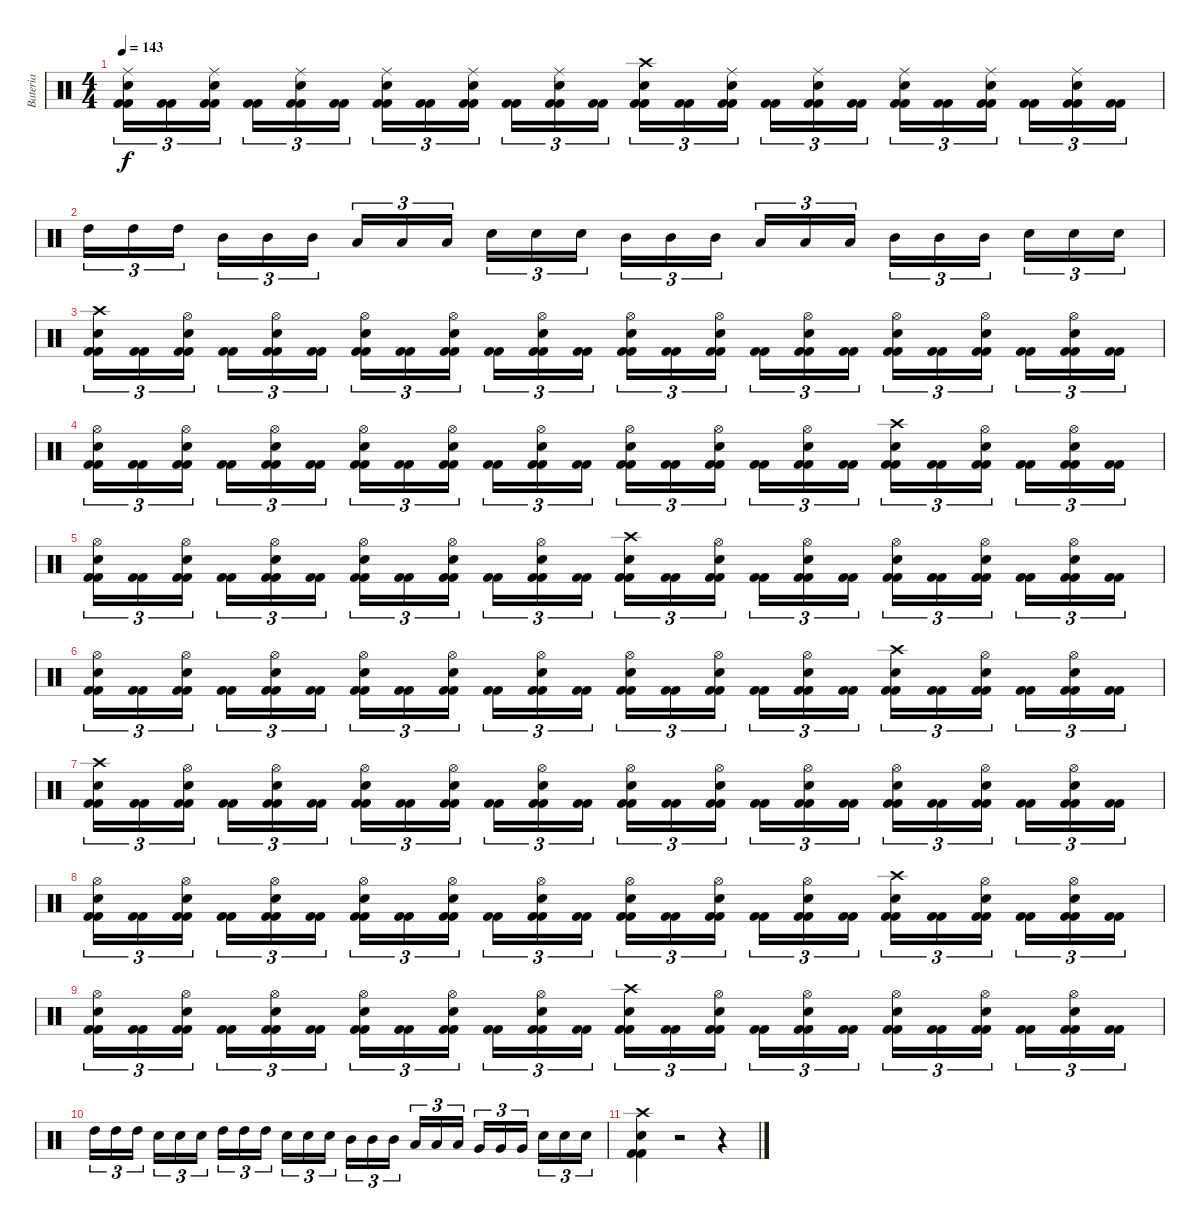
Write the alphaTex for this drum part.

\track ("Bateria" "Bateria") {instrument percussion}
\staff {score}
\articulation defaults
\ts (4 4)
\tempo 143
\clef neutral
\ks c
("Kick (hit) 2" "Kick (hit) 2" "Snare (hit) 2" "Ride (middle)").16{tu (3 2) dy f} ("Kick (hit) 2" "Kick (hit) 2").16{tu (3 2)} ("Kick (hit) 2" "Kick (hit) 2" "Snare (hit) 2" "Ride (middle)").16{tu (3 2)} ("Kick (hit) 2" "Kick (hit) 2").16{tu (3 2)} ("Kick (hit) 2" "Kick (hit) 2" "Snare (hit) 2" "Ride (middle)").16{tu (3 2)} ("Kick (hit) 2" "Kick (hit) 2").16{tu (3 2)} ("Kick (hit) 2" "Kick (hit) 2" "Snare (hit) 2" "Ride (middle)").16{tu (3 2)} ("Kick (hit) 2" "Kick (hit) 2").16{tu (3 2)} ("Kick (hit) 2" "Kick (hit) 2" "Snare (hit) 2" "Ride (middle)").16{tu (3 2)} ("Kick (hit) 2" "Kick (hit) 2").16{tu (3 2)} ("Kick (hit) 2" "Kick (hit) 2" "Snare (hit) 2" "Ride (middle)").16{tu (3 2)} ("Kick (hit) 2" "Kick (hit) 2").16{tu (3 2)} ("Kick (hit) 2" "Kick (hit) 2" "Snare (hit) 2" "Crash high (hit)").16{tu (3 2)} ("Kick (hit) 2" "Kick (hit) 2").16{tu (3 2)} ("Kick (hit) 2" "Kick (hit) 2" "Snare (hit) 2" "Ride (middle)").16{tu (3 2)} ("Kick (hit) 2" "Kick (hit) 2").16{tu (3 2)} ("Kick (hit) 2" "Kick (hit) 2" "Snare (hit) 2" "Ride (middle)").16{tu (3 2)} ("Kick (hit) 2" "Kick (hit) 2").16{tu (3 2)} ("Kick (hit) 2" "Kick (hit) 2" "Snare (hit) 2" "Ride (middle)").16{tu (3 2)} ("Kick (hit) 2" "Kick (hit) 2").16{tu (3 2)} ("Kick (hit) 2" "Kick (hit) 2" "Snare (hit) 2" "Ride (middle)").16{tu (3 2)} ("Kick (hit) 2" "Kick (hit) 2").16{tu (3 2)} ("Kick (hit) 2" "Kick (hit) 2" "Snare (hit) 2" "Ride (middle)").16{tu (3 2)} ("Kick (hit) 2" "Kick (hit) 2").16{tu (3 2)} |
"High Tom (hit)".16{tu (3 2)} "High Tom (hit)".16{tu (3 2)} "High Tom (hit)".16{tu (3 2)} "Mid Tom (hit)".16{tu (3 2)} "Mid Tom (hit)".16{tu (3 2)} "Mid Tom (hit)".16{tu (3 2)} "Low Tom (hit)".16{tu (3 2)} "Low Tom (hit)".16{tu (3 2)} "Low Tom (hit)".16{tu (3 2)} "Snare (hit) 2".16{tu (3 2)} "Snare (hit) 2".16{tu (3 2)} "Snare (hit) 2".16{tu (3 2)} "Mid Tom (hit)".16{tu (3 2)} "Mid Tom (hit)".16{tu (3 2)} "Mid Tom (hit)".16{tu (3 2)} "Low Tom (hit)".16{tu (3 2)} "Low Tom (hit)".16{tu (3 2)} "Low Tom (hit)".16{tu (3 2)} "Mid Tom (hit)".16{tu (3 2)} "Mid Tom (hit)".16{tu (3 2)} "Mid Tom (hit)".16{tu (3 2)} "Snare (hit) 2".16{tu (3 2)} "Snare (hit) 2".16{tu (3 2)} "Snare (hit) 2".16{tu (3 2)} |
("Kick (hit) 2" "Kick (hit) 2" "Snare (hit) 2" "Crash high (hit)").16{tu (3 2)} ("Kick (hit) 2" "Kick (hit) 2").16{tu (3 2)} ("Kick (hit) 2" "Kick (hit) 2" "Snare (hit) 2" "Hi-Hat (open)").16{tu (3 2)} ("Kick (hit) 2" "Kick (hit) 2").16{tu (3 2)} ("Kick (hit) 2" "Kick (hit) 2" "Snare (hit) 2" "Hi-Hat (open)").16{tu (3 2)} ("Kick (hit) 2" "Kick (hit) 2").16{tu (3 2)} ("Kick (hit) 2" "Kick (hit) 2" "Snare (hit) 2" "Hi-Hat (open)").16{tu (3 2)} ("Kick (hit) 2" "Kick (hit) 2").16{tu (3 2)} ("Kick (hit) 2" "Kick (hit) 2" "Snare (hit) 2" "Hi-Hat (open)").16{tu (3 2)} ("Kick (hit) 2" "Kick (hit) 2").16{tu (3 2)} ("Kick (hit) 2" "Kick (hit) 2" "Snare (hit) 2" "Hi-Hat (open)").16{tu (3 2)} ("Kick (hit) 2" "Kick (hit) 2").16{tu (3 2)} ("Kick (hit) 2" "Kick (hit) 2" "Snare (hit) 2" "Hi-Hat (open)").16{tu (3 2)} ("Kick (hit) 2" "Kick (hit) 2").16{tu (3 2)} ("Kick (hit) 2" "Kick (hit) 2" "Snare (hit) 2" "Hi-Hat (open)").16{tu (3 2)} ("Kick (hit) 2" "Kick (hit) 2").16{tu (3 2)} ("Kick (hit) 2" "Kick (hit) 2" "Snare (hit) 2" "Hi-Hat (open)").16{tu (3 2)} ("Kick (hit) 2" "Kick (hit) 2").16{tu (3 2)} ("Kick (hit) 2" "Kick (hit) 2" "Snare (hit) 2" "Hi-Hat (open)").16{tu (3 2)} ("Kick (hit) 2" "Kick (hit) 2").16{tu (3 2)} ("Kick (hit) 2" "Kick (hit) 2" "Snare (hit) 2" "Hi-Hat (open)").16{tu (3 2)} ("Kick (hit) 2" "Kick (hit) 2").16{tu (3 2)} ("Kick (hit) 2" "Kick (hit) 2" "Snare (hit) 2" "Hi-Hat (open)").16{tu (3 2)} ("Kick (hit) 2" "Kick (hit) 2").16{tu (3 2)} |
("Kick (hit) 2" "Kick (hit) 2" "Snare (hit) 2" "Hi-Hat (open)").16{tu (3 2)} ("Kick (hit) 2" "Kick (hit) 2").16{tu (3 2)} ("Kick (hit) 2" "Kick (hit) 2" "Snare (hit) 2" "Hi-Hat (open)").16{tu (3 2)} ("Kick (hit) 2" "Kick (hit) 2").16{tu (3 2)} ("Kick (hit) 2" "Kick (hit) 2" "Snare (hit) 2" "Hi-Hat (open)").16{tu (3 2)} ("Kick (hit) 2" "Kick (hit) 2").16{tu (3 2)} ("Kick (hit) 2" "Kick (hit) 2" "Snare (hit) 2" "Hi-Hat (open)").16{tu (3 2)} ("Kick (hit) 2" "Kick (hit) 2").16{tu (3 2)} ("Kick (hit) 2" "Kick (hit) 2" "Snare (hit) 2" "Hi-Hat (open)").16{tu (3 2)} ("Kick (hit) 2" "Kick (hit) 2").16{tu (3 2)} ("Kick (hit) 2" "Kick (hit) 2" "Snare (hit) 2" "Hi-Hat (open)").16{tu (3 2)} ("Kick (hit) 2" "Kick (hit) 2").16{tu (3 2)} ("Kick (hit) 2" "Kick (hit) 2" "Snare (hit) 2" "Hi-Hat (open)").16{tu (3 2)} ("Kick (hit) 2" "Kick (hit) 2").16{tu (3 2)} ("Kick (hit) 2" "Kick (hit) 2" "Snare (hit) 2" "Hi-Hat (open)").16{tu (3 2)} ("Kick (hit) 2" "Kick (hit) 2").16{tu (3 2)} ("Kick (hit) 2" "Kick (hit) 2" "Snare (hit) 2" "Hi-Hat (open)").16{tu (3 2)} ("Kick (hit) 2" "Kick (hit) 2").16{tu (3 2)} ("Kick (hit) 2" "Kick (hit) 2" "Snare (hit) 2" "Crash high (hit)").16{tu (3 2)} ("Kick (hit) 2" "Kick (hit) 2").16{tu (3 2)} ("Kick (hit) 2" "Kick (hit) 2" "Snare (hit) 2" "Hi-Hat (open)").16{tu (3 2)} ("Kick (hit) 2" "Kick (hit) 2").16{tu (3 2)} ("Kick (hit) 2" "Kick (hit) 2" "Snare (hit) 2" "Hi-Hat (open)").16{tu (3 2)} ("Kick (hit) 2" "Kick (hit) 2").16{tu (3 2)} |
("Kick (hit) 2" "Kick (hit) 2" "Snare (hit) 2" "Hi-Hat (open)").16{tu (3 2)} ("Kick (hit) 2" "Kick (hit) 2").16{tu (3 2)} ("Kick (hit) 2" "Kick (hit) 2" "Snare (hit) 2" "Hi-Hat (open)").16{tu (3 2)} ("Kick (hit) 2" "Kick (hit) 2").16{tu (3 2)} ("Kick (hit) 2" "Kick (hit) 2" "Snare (hit) 2" "Hi-Hat (open)").16{tu (3 2)} ("Kick (hit) 2" "Kick (hit) 2").16{tu (3 2)} ("Kick (hit) 2" "Kick (hit) 2" "Snare (hit) 2" "Hi-Hat (open)").16{tu (3 2)} ("Kick (hit) 2" "Kick (hit) 2").16{tu (3 2)} ("Kick (hit) 2" "Kick (hit) 2" "Snare (hit) 2" "Hi-Hat (open)").16{tu (3 2)} ("Kick (hit) 2" "Kick (hit) 2").16{tu (3 2)} ("Kick (hit) 2" "Kick (hit) 2" "Snare (hit) 2" "Hi-Hat (open)").16{tu (3 2)} ("Kick (hit) 2" "Kick (hit) 2").16{tu (3 2)} ("Kick (hit) 2" "Kick (hit) 2" "Snare (hit) 2" "Crash high (hit)").16{tu (3 2)} ("Kick (hit) 2" "Kick (hit) 2").16{tu (3 2)} ("Kick (hit) 2" "Kick (hit) 2" "Snare (hit) 2" "Hi-Hat (open)").16{tu (3 2)} ("Kick (hit) 2" "Kick (hit) 2").16{tu (3 2)} ("Kick (hit) 2" "Kick (hit) 2" "Snare (hit) 2" "Hi-Hat (open)").16{tu (3 2)} ("Kick (hit) 2" "Kick (hit) 2").16{tu (3 2)} ("Kick (hit) 2" "Kick (hit) 2" "Snare (hit) 2" "Hi-Hat (open)").16{tu (3 2)} ("Kick (hit) 2" "Kick (hit) 2").16{tu (3 2)} ("Kick (hit) 2" "Kick (hit) 2" "Snare (hit) 2" "Hi-Hat (open)").16{tu (3 2)} ("Kick (hit) 2" "Kick (hit) 2").16{tu (3 2)} ("Kick (hit) 2" "Kick (hit) 2" "Snare (hit) 2" "Hi-Hat (open)").16{tu (3 2)} ("Kick (hit) 2" "Kick (hit) 2").16{tu (3 2)} |
("Kick (hit) 2" "Kick (hit) 2" "Snare (hit) 2" "Hi-Hat (open)").16{tu (3 2)} ("Kick (hit) 2" "Kick (hit) 2").16{tu (3 2)} ("Kick (hit) 2" "Kick (hit) 2" "Snare (hit) 2" "Hi-Hat (open)").16{tu (3 2)} ("Kick (hit) 2" "Kick (hit) 2").16{tu (3 2)} ("Kick (hit) 2" "Kick (hit) 2" "Snare (hit) 2" "Hi-Hat (open)").16{tu (3 2)} ("Kick (hit) 2" "Kick (hit) 2").16{tu (3 2)} ("Kick (hit) 2" "Kick (hit) 2" "Snare (hit) 2" "Hi-Hat (open)").16{tu (3 2)} ("Kick (hit) 2" "Kick (hit) 2").16{tu (3 2)} ("Kick (hit) 2" "Kick (hit) 2" "Snare (hit) 2" "Hi-Hat (open)").16{tu (3 2)} ("Kick (hit) 2" "Kick (hit) 2").16{tu (3 2)} ("Kick (hit) 2" "Kick (hit) 2" "Snare (hit) 2" "Hi-Hat (open)").16{tu (3 2)} ("Kick (hit) 2" "Kick (hit) 2").16{tu (3 2)} ("Kick (hit) 2" "Kick (hit) 2" "Snare (hit) 2" "Hi-Hat (open)").16{tu (3 2)} ("Kick (hit) 2" "Kick (hit) 2").16{tu (3 2)} ("Kick (hit) 2" "Kick (hit) 2" "Snare (hit) 2" "Hi-Hat (open)").16{tu (3 2)} ("Kick (hit) 2" "Kick (hit) 2").16{tu (3 2)} ("Kick (hit) 2" "Kick (hit) 2" "Snare (hit) 2" "Hi-Hat (open)").16{tu (3 2)} ("Kick (hit) 2" "Kick (hit) 2").16{tu (3 2)} ("Kick (hit) 2" "Kick (hit) 2" "Snare (hit) 2" "Crash high (hit)").16{tu (3 2)} ("Kick (hit) 2" "Kick (hit) 2").16{tu (3 2)} ("Kick (hit) 2" "Kick (hit) 2" "Snare (hit) 2" "Hi-Hat (open)").16{tu (3 2)} ("Kick (hit) 2" "Kick (hit) 2").16{tu (3 2)} ("Kick (hit) 2" "Kick (hit) 2" "Snare (hit) 2" "Hi-Hat (open)").16{tu (3 2)} ("Kick (hit) 2" "Kick (hit) 2").16{tu (3 2)} |
("Kick (hit) 2" "Kick (hit) 2" "Snare (hit) 2" "Crash high (hit)").16{tu (3 2)} ("Kick (hit) 2" "Kick (hit) 2").16{tu (3 2)} ("Kick (hit) 2" "Kick (hit) 2" "Snare (hit) 2" "Hi-Hat (open)").16{tu (3 2)} ("Kick (hit) 2" "Kick (hit) 2").16{tu (3 2)} ("Kick (hit) 2" "Kick (hit) 2" "Snare (hit) 2" "Hi-Hat (open)").16{tu (3 2)} ("Kick (hit) 2" "Kick (hit) 2").16{tu (3 2)} ("Kick (hit) 2" "Kick (hit) 2" "Snare (hit) 2" "Hi-Hat (open)").16{tu (3 2)} ("Kick (hit) 2" "Kick (hit) 2").16{tu (3 2)} ("Kick (hit) 2" "Kick (hit) 2" "Snare (hit) 2" "Hi-Hat (open)").16{tu (3 2)} ("Kick (hit) 2" "Kick (hit) 2").16{tu (3 2)} ("Kick (hit) 2" "Kick (hit) 2" "Snare (hit) 2" "Hi-Hat (open)").16{tu (3 2)} ("Kick (hit) 2" "Kick (hit) 2").16{tu (3 2)} ("Kick (hit) 2" "Kick (hit) 2" "Snare (hit) 2" "Hi-Hat (open)").16{tu (3 2)} ("Kick (hit) 2" "Kick (hit) 2").16{tu (3 2)} ("Kick (hit) 2" "Kick (hit) 2" "Snare (hit) 2" "Hi-Hat (open)").16{tu (3 2)} ("Kick (hit) 2" "Kick (hit) 2").16{tu (3 2)} ("Kick (hit) 2" "Kick (hit) 2" "Snare (hit) 2" "Hi-Hat (open)").16{tu (3 2)} ("Kick (hit) 2" "Kick (hit) 2").16{tu (3 2)} ("Kick (hit) 2" "Kick (hit) 2" "Snare (hit) 2" "Hi-Hat (open)").16{tu (3 2)} ("Kick (hit) 2" "Kick (hit) 2").16{tu (3 2)} ("Kick (hit) 2" "Kick (hit) 2" "Snare (hit) 2" "Hi-Hat (open)").16{tu (3 2)} ("Kick (hit) 2" "Kick (hit) 2").16{tu (3 2)} ("Kick (hit) 2" "Kick (hit) 2" "Snare (hit) 2" "Hi-Hat (open)").16{tu (3 2)} ("Kick (hit) 2" "Kick (hit) 2").16{tu (3 2)} |
("Kick (hit) 2" "Kick (hit) 2" "Snare (hit) 2" "Hi-Hat (open)").16{tu (3 2)} ("Kick (hit) 2" "Kick (hit) 2").16{tu (3 2)} ("Kick (hit) 2" "Kick (hit) 2" "Snare (hit) 2" "Hi-Hat (open)").16{tu (3 2)} ("Kick (hit) 2" "Kick (hit) 2").16{tu (3 2)} ("Kick (hit) 2" "Kick (hit) 2" "Snare (hit) 2" "Hi-Hat (open)").16{tu (3 2)} ("Kick (hit) 2" "Kick (hit) 2").16{tu (3 2)} ("Kick (hit) 2" "Kick (hit) 2" "Snare (hit) 2" "Hi-Hat (open)").16{tu (3 2)} ("Kick (hit) 2" "Kick (hit) 2").16{tu (3 2)} ("Kick (hit) 2" "Kick (hit) 2" "Snare (hit) 2" "Hi-Hat (open)").16{tu (3 2)} ("Kick (hit) 2" "Kick (hit) 2").16{tu (3 2)} ("Kick (hit) 2" "Kick (hit) 2" "Snare (hit) 2" "Hi-Hat (open)").16{tu (3 2)} ("Kick (hit) 2" "Kick (hit) 2").16{tu (3 2)} ("Kick (hit) 2" "Kick (hit) 2" "Snare (hit) 2" "Hi-Hat (open)").16{tu (3 2)} ("Kick (hit) 2" "Kick (hit) 2").16{tu (3 2)} ("Kick (hit) 2" "Kick (hit) 2" "Snare (hit) 2" "Hi-Hat (open)").16{tu (3 2)} ("Kick (hit) 2" "Kick (hit) 2").16{tu (3 2)} ("Kick (hit) 2" "Kick (hit) 2" "Snare (hit) 2" "Hi-Hat (open)").16{tu (3 2)} ("Kick (hit) 2" "Kick (hit) 2").16{tu (3 2)} ("Kick (hit) 2" "Kick (hit) 2" "Snare (hit) 2" "Crash high (hit)").16{tu (3 2)} ("Kick (hit) 2" "Kick (hit) 2").16{tu (3 2)} ("Kick (hit) 2" "Kick (hit) 2" "Snare (hit) 2" "Hi-Hat (open)").16{tu (3 2)} ("Kick (hit) 2" "Kick (hit) 2").16{tu (3 2)} ("Kick (hit) 2" "Kick (hit) 2" "Snare (hit) 2" "Hi-Hat (open)").16{tu (3 2)} ("Kick (hit) 2" "Kick (hit) 2").16{tu (3 2)} |
("Kick (hit) 2" "Kick (hit) 2" "Snare (hit) 2" "Hi-Hat (open)").16{tu (3 2)} ("Kick (hit) 2" "Kick (hit) 2").16{tu (3 2)} ("Kick (hit) 2" "Kick (hit) 2" "Snare (hit) 2" "Hi-Hat (open)").16{tu (3 2)} ("Kick (hit) 2" "Kick (hit) 2").16{tu (3 2)} ("Kick (hit) 2" "Kick (hit) 2" "Snare (hit) 2" "Hi-Hat (open)").16{tu (3 2)} ("Kick (hit) 2" "Kick (hit) 2").16{tu (3 2)} ("Kick (hit) 2" "Kick (hit) 2" "Snare (hit) 2" "Hi-Hat (open)").16{tu (3 2)} ("Kick (hit) 2" "Kick (hit) 2").16{tu (3 2)} ("Kick (hit) 2" "Kick (hit) 2" "Snare (hit) 2" "Hi-Hat (open)").16{tu (3 2)} ("Kick (hit) 2" "Kick (hit) 2").16{tu (3 2)} ("Kick (hit) 2" "Kick (hit) 2" "Snare (hit) 2" "Hi-Hat (open)").16{tu (3 2)} ("Kick (hit) 2" "Kick (hit) 2").16{tu (3 2)} ("Kick (hit) 2" "Kick (hit) 2" "Snare (hit) 2" "Crash high (hit)").16{tu (3 2)} ("Kick (hit) 2" "Kick (hit) 2").16{tu (3 2)} ("Kick (hit) 2" "Kick (hit) 2" "Snare (hit) 2" "Hi-Hat (open)").16{tu (3 2)} ("Kick (hit) 2" "Kick (hit) 2").16{tu (3 2)} ("Kick (hit) 2" "Kick (hit) 2" "Snare (hit) 2" "Hi-Hat (open)").16{tu (3 2)} ("Kick (hit) 2" "Kick (hit) 2").16{tu (3 2)} ("Kick (hit) 2" "Kick (hit) 2" "Snare (hit) 2" "Hi-Hat (open)").16{tu (3 2)} ("Kick (hit) 2" "Kick (hit) 2").16{tu (3 2)} ("Kick (hit) 2" "Kick (hit) 2" "Snare (hit) 2" "Hi-Hat (open)").16{tu (3 2)} ("Kick (hit) 2" "Kick (hit) 2").16{tu (3 2)} ("Kick (hit) 2" "Kick (hit) 2" "Snare (hit) 2" "Hi-Hat (open)").16{tu (3 2)} ("Kick (hit) 2" "Kick (hit) 2").16{tu (3 2)} |
"High Tom (hit)".16{tu (3 2)} "High Tom (hit)".16{tu (3 2)} "High Tom (hit)".16{tu (3 2)} "Snare (hit) 2".16{tu (3 2)} "Snare (hit) 2".16{tu (3 2)} "Snare (hit) 2".16{tu (3 2)} "High Tom (hit)".16{tu (3 2)} "High Tom (hit)".16{tu (3 2)} "High Tom (hit)".16{tu (3 2)} "Snare (hit) 2".16{tu (3 2)} "Snare (hit) 2".16{tu (3 2)} "Snare (hit) 2".16{tu (3 2)} "Mid Tom (hit)".16{tu (3 2)} "Mid Tom (hit)".16{tu (3 2)} "Mid Tom (hit)".16{tu (3 2)} "Low Tom (hit)".16{tu (3 2)} "Low Tom (hit)".16{tu (3 2)} "Low Tom (hit)".16{tu (3 2)} "Very Low Tom (hit)".16{tu (3 2)} "Very Low Tom (hit)".16{tu (3 2)} "Very Low Tom (hit)".16{tu (3 2)} "Snare (hit) 2".16{tu (3 2)} "Snare (hit) 2".16{tu (3 2)} "Snare (hit) 2".16{tu (3 2)} |
("Kick (hit) 2" "Kick (hit) 2" "Snare (hit) 2" "Crash high (hit)").4 r.2 r.4
